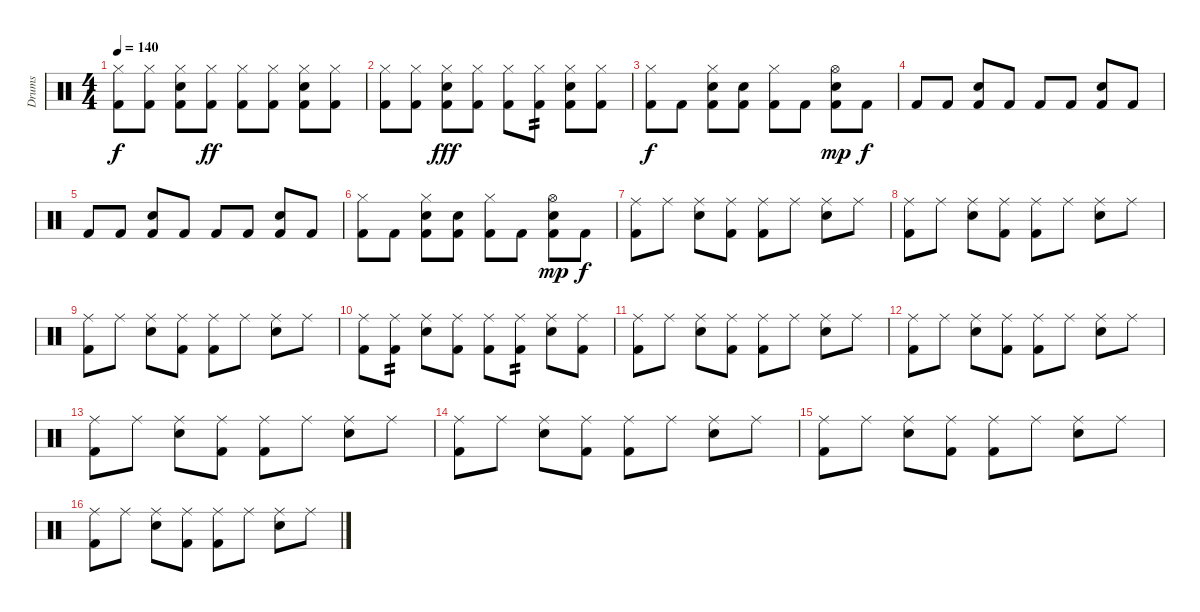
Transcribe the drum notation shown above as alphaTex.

\track ("Drums" "Drums") {instrument percussion}
\staff {score}
\articulation defaults
\ts (4 4)
\tempo 140
\clef neutral
\ks c
("Hi-Hat (closed)" "Kick (hit) 2").8{dy f} ("Hi-Hat (closed)" "Kick (hit) 2").8 ("Hi-Hat (closed)" "Electric Snare (hit)" "Kick (hit) 2").8 ("Hi-Hat (closed)" "Kick (hit) 2").8{dy ff} ("Hi-Hat (closed)" "Kick (hit) 2").8 ("Hi-Hat (closed)" "Kick (hit) 2").8 ("Hi-Hat (closed)" "Electric Snare (hit)" "Kick (hit) 2").8 ("Hi-Hat (closed)" "Kick (hit) 2").8 |
("Hi-Hat (closed)" "Kick (hit) 2").8 ("Hi-Hat (closed)" "Kick (hit) 2").8 ("Hi-Hat (closed)" "Electric Snare (hit)" "Kick (hit) 2").8{dy fff} ("Hi-Hat (closed)" "Kick (hit) 2").8 ("Hi-Hat (closed)" "Kick (hit) 2").8 ("Hi-Hat (closed)" "Kick (hit) 2").8{tp 2} ("Hi-Hat (closed)" "Electric Snare (hit)" "Kick (hit) 2").8 ("Hi-Hat (closed)" "Kick (hit) 2").8 |
("Hi-Hat (closed)" "Kick (hit) 2").8{dy f} "Kick (hit) 2".8 ("Hi-Hat (closed)" "Electric Snare (hit)" "Kick (hit) 2").8 ("Electric Snare (hit)" "Kick (hit) 2").8 ("Hi-Hat (closed)" "Kick (hit) 2").8 "Kick (hit) 2".8 ("Hi-Hat (open)" "Electric Snare (hit)" "Kick (hit) 2").8{dy mp} "Kick (hit) 2".8{dy f} |
"Kick (hit) 2".8 "Kick (hit) 2".8 ("Electric Snare (hit)" "Kick (hit) 2").8 "Kick (hit) 2".8 "Kick (hit) 2".8 "Kick (hit) 2".8 ("Electric Snare (hit)" "Kick (hit) 2").8 "Kick (hit) 2".8 |
"Kick (hit) 2".8 "Kick (hit) 2".8 ("Electric Snare (hit)" "Kick (hit) 2").8 "Kick (hit) 2".8 "Kick (hit) 2".8 "Kick (hit) 2".8 ("Electric Snare (hit)" "Kick (hit) 2").8 "Kick (hit) 2".8 |
("Hi-Hat (closed)" "Kick (hit) 2").8 "Kick (hit) 2".8 ("Hi-Hat (closed)" "Electric Snare (hit)" "Kick (hit) 2").8 ("Electric Snare (hit)" "Kick (hit) 2").8 ("Hi-Hat (closed)" "Kick (hit) 2").8 "Kick (hit) 2".8 ("Hi-Hat (open)" "Electric Snare (hit)" "Kick (hit) 2").8{dy mp} "Kick (hit) 2".8{dy f} |
("Ride (middle)" "Kick (hit) 2").8 "Ride (middle)".8 ("Ride (middle)" "Electric Snare (hit)").8 ("Ride (middle)" "Kick (hit) 2").8 ("Ride (middle)" "Kick (hit) 2").8 "Ride (middle)".8 ("Ride (middle)" "Electric Snare (hit)").8 "Ride (middle)".8 |
("Ride (middle)" "Kick (hit) 2").8 "Ride (middle)".8 ("Ride (middle)" "Electric Snare (hit)").8 ("Ride (middle)" "Kick (hit) 2").8 ("Ride (middle)" "Kick (hit) 2").8 "Ride (middle)".8 ("Ride (middle)" "Electric Snare (hit)").8 "Ride (middle)".8 |
("Ride (middle)" "Kick (hit) 2").8 "Ride (middle)".8 ("Ride (middle)" "Electric Snare (hit)").8 ("Ride (middle)" "Kick (hit) 2").8 ("Ride (middle)" "Kick (hit) 2").8 "Ride (middle)".8 ("Ride (middle)" "Electric Snare (hit)").8 "Ride (middle)".8 |
("Ride (middle)" "Kick (hit) 2").8 ("Ride (middle)" "Kick (hit) 2").8{tp 2} ("Ride (middle)" "Electric Snare (hit)").8 ("Ride (middle)" "Kick (hit) 2").8 ("Ride (middle)" "Kick (hit) 2").8 ("Ride (middle)" "Kick (hit) 2").8{tp 2} ("Ride (middle)" "Electric Snare (hit)").8 ("Ride (middle)" "Kick (hit) 2").8 |
("Ride (middle)" "Kick (hit) 2").8 "Ride (middle)".8 ("Ride (middle)" "Electric Snare (hit)").8 ("Ride (middle)" "Kick (hit) 2").8 ("Ride (middle)" "Kick (hit) 2").8 "Ride (middle)".8 ("Ride (middle)" "Electric Snare (hit)").8 "Ride (middle)".8 |
("Ride (middle)" "Kick (hit) 2").8 "Ride (middle)".8 ("Ride (middle)" "Electric Snare (hit)").8 ("Ride (middle)" "Kick (hit) 2").8 ("Ride (middle)" "Kick (hit) 2").8 "Ride (middle)".8 ("Ride (middle)" "Electric Snare (hit)").8 "Ride (middle)".8 |
("Ride (middle)" "Kick (hit) 2").8 "Ride (middle)".8 ("Ride (middle)" "Electric Snare (hit)").8 ("Ride (middle)" "Kick (hit) 2").8 ("Ride (middle)" "Kick (hit) 2").8 "Ride (middle)".8 ("Ride (middle)" "Electric Snare (hit)").8 "Ride (middle)".8 |
("Ride (middle)" "Kick (hit) 2").8 "Ride (middle)".8 ("Ride (middle)" "Electric Snare (hit)").8 ("Ride (middle)" "Kick (hit) 2").8 ("Ride (middle)" "Kick (hit) 2").8 "Ride (middle)".8 ("Ride (middle)" "Electric Snare (hit)").8 "Ride (middle)".8 |
("Ride (middle)" "Kick (hit) 2").8 "Ride (middle)".8 ("Ride (middle)" "Electric Snare (hit)").8 ("Ride (middle)" "Kick (hit) 2").8 ("Ride (middle)" "Kick (hit) 2").8 "Ride (middle)".8 ("Ride (middle)" "Electric Snare (hit)").8 "Ride (middle)".8 |
("Ride (middle)" "Kick (hit) 2").8 "Ride (middle)".8 ("Ride (middle)" "Electric Snare (hit)").8 ("Ride (middle)" "Kick (hit) 2").8 ("Ride (middle)" "Kick (hit) 2").8 "Ride (middle)".8 ("Ride (middle)" "Electric Snare (hit)").8 "Ride (middle)".8
